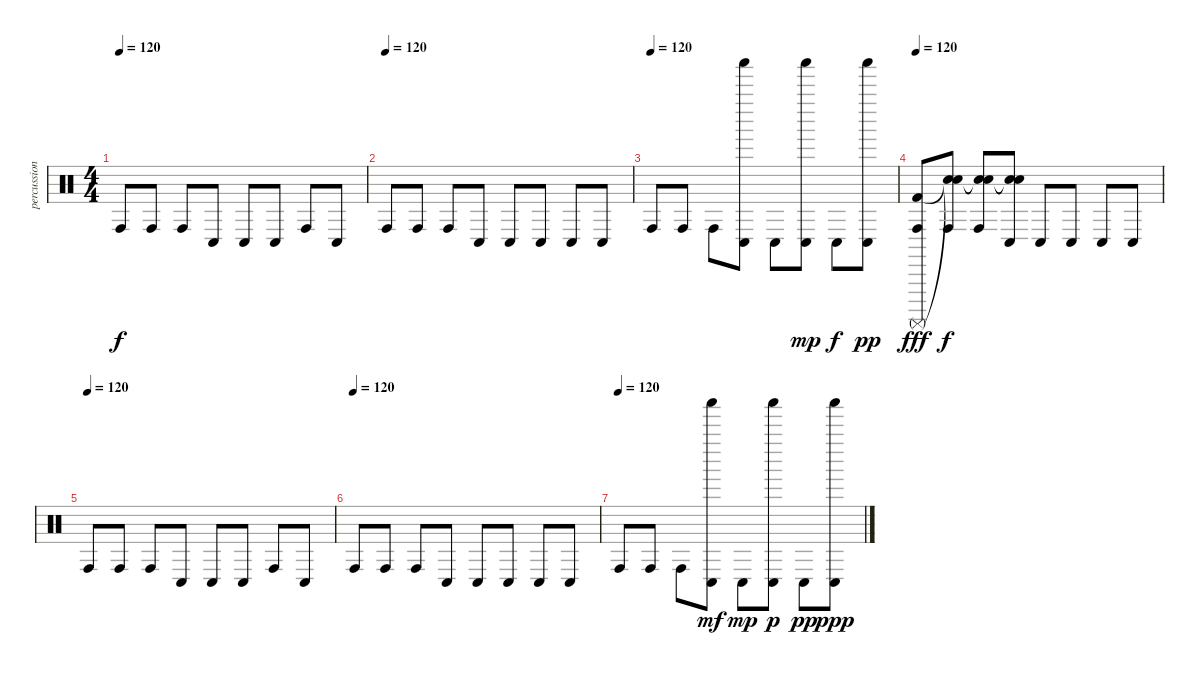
\track ("percussions" "percussion") {instrument percussion}
\staff {score}
\articulation defaults
\ts (4 4)
\tempo 120
\clef neutral
\ks c "Conga high (hit)".8{dy f} "Conga high (hit)".8 "Conga high (hit)".8 "Conga low (hit)".8 "Conga low (hit)".8 "Conga low (hit)".8 "Conga high (hit)".8 "Conga low (hit)".8
|
\tempo (120)
"Conga high (hit)".8 "Conga high (hit)".8 "Conga high (hit)".8 "Conga low (hit)".8 "Conga low (hit)".8 "Conga low (hit)".8 "Conga low (hit)".8 "Conga low (hit)".8 |
\tempo (120)
"Conga high (hit)".8 "Conga high (hit)".8 "Conga high (hit)".8 ("Shaker (hit)" "Conga low (hit)").8 "Conga low (hit)".8 ("Shaker (hit)" "Conga low (hit)").8{dy mp} "Conga low (hit)".8{dy f} ("Shaker (hit)" "Conga low (hit)").8{dy pp} |
\tempo 120
("Surdo (mute)" "Kick (hit) 2" "Conga high (hit)").8{dy fff} ("Snare (hit)"{t} "Snare (hit)"{t} "Conga high (hit)").8{dy f} ("Snare (hit)"{t} "Snare (hit)"{t} "Conga high (hit)").8 ("Snare (hit)"{t} "Snare (hit)"{t} "Conga low (hit)").8 "Conga low (hit)".8 "Conga low (hit)".8 "Conga low (hit)".8 "Conga low (hit)".8 |
\tempo (120)
"Conga high (hit)".8 "Conga high (hit)".8 "Conga high (hit)".8 "Conga low (hit)".8 "Conga low (hit)".8 "Conga low (hit)".8 "Conga high (hit)".8 "Conga low (hit)".8 |
\tempo (120)
"Conga high (hit)".8 "Conga high (hit)".8 "Conga high (hit)".8 "Conga low (hit)".8 "Conga low (hit)".8 "Conga low (hit)".8 "Conga low (hit)".8 "Conga low (hit)".8 |
\tempo (120)
"Conga high (hit)".8 "Conga high (hit)".8 "Conga high (hit)".8 ("Shaker (hit)" "Conga low (hit)").8{dy mf} "Conga low (hit)".8{dy mp} ("Shaker (hit)" "Conga low (hit)").8{dy p} "Conga low (hit)".8{dy pp} ("Shaker (hit)" "Conga low (hit)").8{dy ppp}
